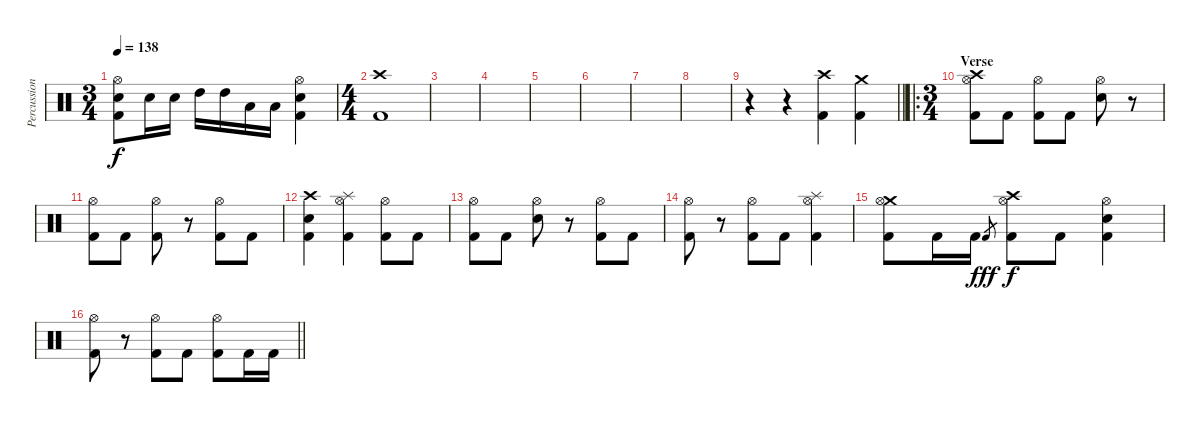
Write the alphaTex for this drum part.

\track ("Percussions" "Percussion") {instrument percussion}
\staff {score}
\articulation defaults
\ts (3 4)
\tempo 138
\clef neutral
\ks c
("Hi-Hat (open)" "Snare (hit) 2" "Kick (hit) 2").8{dy f} "Snare (hit) 2".16 "Snare (hit) 2".16 "High Tom (hit)".16 "High Tom (hit)".16 "Low Tom (hit)".16 "Low Tom (hit)".16 ("Hi-Hat (open)" "Snare (hit) 2" "Kick (hit) 2").4 |
\ts (4 4)
("Crash high (hit)" "Kick (hit) 2").1 |
|
|
|
|
|
|
\barLineRight lightlight
r.4 r.4 ("Crash high (hit)" "Kick (hit) 2").4 ("Crash medium (hit)" "Kick (hit) 2").4 |
\ro
\ts (3 4)
\section ("" "Verse ")
("Crash high (hit)" "Hi-Hat (open)" "Kick (hit) 2").8 "Kick (hit) 2".8 ("Hi-Hat (open)" "Kick (hit) 2").8 "Kick (hit) 2".8 ("Hi-Hat (open)" "Snare (hit) 2").8 r.8 |
("Hi-Hat (open)" "Kick (hit) 2").8 "Kick (hit) 2".8 ("Hi-Hat (open)" "Kick (hit) 2").8 r.8 ("Hi-Hat (open)" "Kick (hit) 2").8 "Kick (hit) 2".8 |
("Crash high (hit)" "Snare (hit) 2" "Kick (hit) 2").4 ("Splash (hit)" "Hi-Hat (open)" "Kick (hit) 2").4 ("Hi-Hat (open)" "Kick (hit) 2").8 "Kick (hit) 2".8 |
("Hi-Hat (open)" "Kick (hit) 2").8 "Kick (hit) 2".8 ("Hi-Hat (open)" "Snare (hit) 2").8 r.8 ("Hi-Hat (open)" "Kick (hit) 2").8 "Kick (hit) 2".8 |
("Hi-Hat (open)" "Kick (hit) 2").8 r.8 ("Hi-Hat (open)" "Kick (hit) 2").8 "Kick (hit) 2".8 ("Splash (hit)" "Hi-Hat (open)" "Kick (hit) 2").4 |
("Crash medium (hit)" "Hi-Hat (open)" "Kick (hit) 2").8 "Kick (hit) 2".16 "Kick (hit) 2".16 "Kick (hit) 2".8{gr dy fff} ("Crash high (hit)" "Hi-Hat (open)" "Kick (hit) 2").8{dy f} "Kick (hit) 2".8 ("Hi-Hat (open)" "Snare (hit) 2" "Kick (hit) 2").4 |
\barLineRight lightlight
("Hi-Hat (open)" "Kick (hit) 2").8 r.8 ("Hi-Hat (open)" "Kick (hit) 2").8 "Kick (hit) 2".8 ("Hi-Hat (open)" "Kick (hit) 2").8 "Kick (hit) 2".16 "Kick (hit) 2".16
